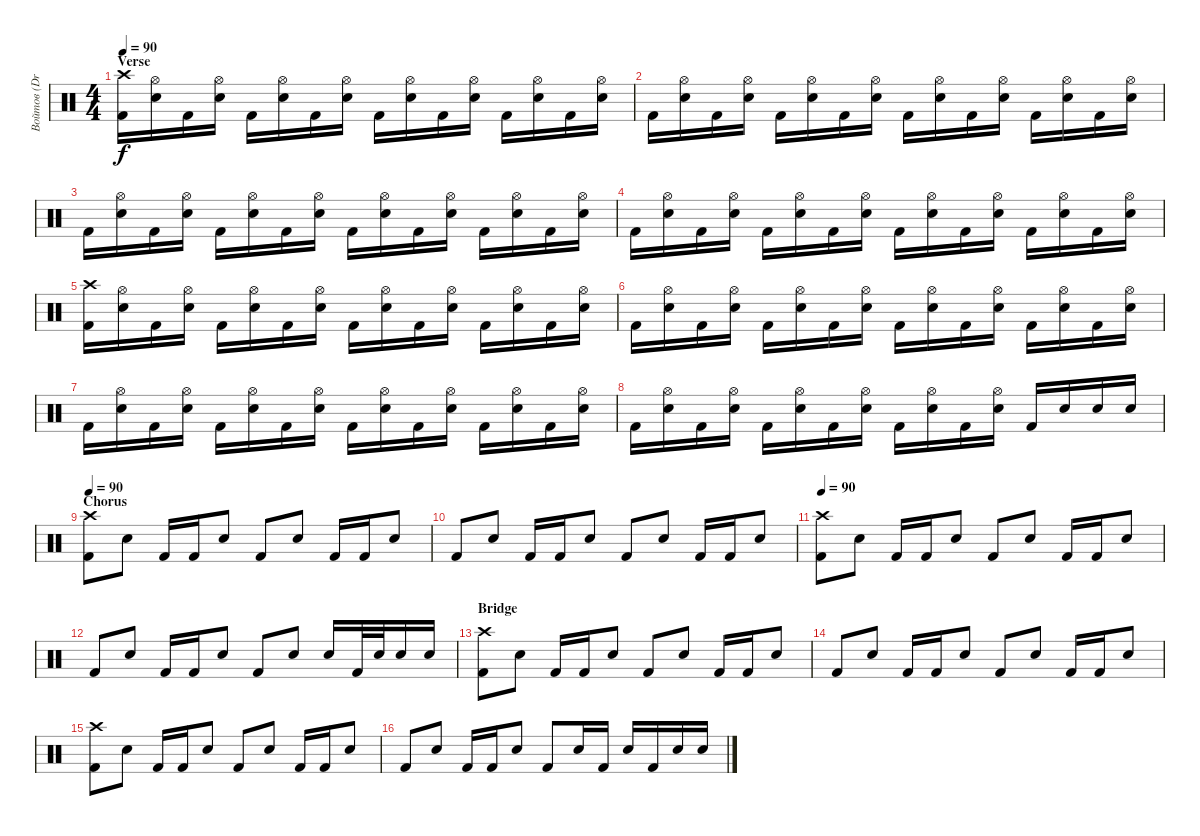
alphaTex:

\track ("Войтов (Drums)" "Войтов (Dr") {instrument percussion}
\staff {score}
\articulation defaults
\ts (4 4)
\section ("" "Verse")
\tempo 90
\clef neutral
\ks c
("Kick (hit) 2" "Crash high (hit)").16{dy f} ("Electric Snare (hit)" "Hi-Hat (open)").16 "Kick (hit) 2".16 ("Electric Snare (hit)" "Hi-Hat (open)").16 "Kick (hit) 2".16 ("Electric Snare (hit)" "Hi-Hat (open)").16 "Kick (hit) 2".16 ("Electric Snare (hit)" "Hi-Hat (open)").16 "Kick (hit) 2".16 ("Electric Snare (hit)" "Hi-Hat (open)").16 "Kick (hit) 2".16 ("Electric Snare (hit)" "Hi-Hat (open)").16 "Kick (hit) 2".16 ("Electric Snare (hit)" "Hi-Hat (open)").16 "Kick (hit) 2".16 ("Electric Snare (hit)" "Hi-Hat (open)").16 |
"Kick (hit) 2".16 ("Electric Snare (hit)" "Hi-Hat (open)").16 "Kick (hit) 2".16 ("Electric Snare (hit)" "Hi-Hat (open)").16 "Kick (hit) 2".16 ("Electric Snare (hit)" "Hi-Hat (open)").16 "Kick (hit) 2".16 ("Electric Snare (hit)" "Hi-Hat (open)").16 "Kick (hit) 2".16 ("Electric Snare (hit)" "Hi-Hat (open)").16 "Kick (hit) 2".16 ("Electric Snare (hit)" "Hi-Hat (open)").16 "Kick (hit) 2".16 ("Electric Snare (hit)" "Hi-Hat (open)").16 "Kick (hit) 2".16 ("Electric Snare (hit)" "Hi-Hat (open)").16 |
"Kick (hit) 2".16 ("Electric Snare (hit)" "Hi-Hat (open)").16 "Kick (hit) 2".16 ("Electric Snare (hit)" "Hi-Hat (open)").16 "Kick (hit) 2".16 ("Electric Snare (hit)" "Hi-Hat (open)").16 "Kick (hit) 2".16 ("Electric Snare (hit)" "Hi-Hat (open)").16 "Kick (hit) 2".16 ("Electric Snare (hit)" "Hi-Hat (open)").16 "Kick (hit) 2".16 ("Electric Snare (hit)" "Hi-Hat (open)").16 "Kick (hit) 2".16 ("Electric Snare (hit)" "Hi-Hat (open)").16 "Kick (hit) 2".16 ("Electric Snare (hit)" "Hi-Hat (open)").16 |
"Kick (hit) 2".16 ("Electric Snare (hit)" "Hi-Hat (open)").16 "Kick (hit) 2".16 ("Electric Snare (hit)" "Hi-Hat (open)").16 "Kick (hit) 2".16 ("Electric Snare (hit)" "Hi-Hat (open)").16 "Kick (hit) 2".16 ("Electric Snare (hit)" "Hi-Hat (open)").16 "Kick (hit) 2".16 ("Electric Snare (hit)" "Hi-Hat (open)").16 "Kick (hit) 2".16 ("Electric Snare (hit)" "Hi-Hat (open)").16 "Kick (hit) 2".16 ("Electric Snare (hit)" "Hi-Hat (open)").16 "Kick (hit) 2".16 ("Electric Snare (hit)" "Hi-Hat (open)").16 |
("Kick (hit) 2" "Crash high (hit)").16 ("Electric Snare (hit)" "Hi-Hat (open)").16 "Kick (hit) 2".16 ("Electric Snare (hit)" "Hi-Hat (open)").16 "Kick (hit) 2".16 ("Electric Snare (hit)" "Hi-Hat (open)").16 "Kick (hit) 2".16 ("Electric Snare (hit)" "Hi-Hat (open)").16 "Kick (hit) 2".16 ("Electric Snare (hit)" "Hi-Hat (open)").16 "Kick (hit) 2".16 ("Electric Snare (hit)" "Hi-Hat (open)").16 "Kick (hit) 2".16 ("Electric Snare (hit)" "Hi-Hat (open)").16 "Kick (hit) 2".16 ("Electric Snare (hit)" "Hi-Hat (open)").16 |
"Kick (hit) 2".16 ("Electric Snare (hit)" "Hi-Hat (open)").16 "Kick (hit) 2".16 ("Electric Snare (hit)" "Hi-Hat (open)").16 "Kick (hit) 2".16 ("Electric Snare (hit)" "Hi-Hat (open)").16 "Kick (hit) 2".16 ("Electric Snare (hit)" "Hi-Hat (open)").16 "Kick (hit) 2".16 ("Electric Snare (hit)" "Hi-Hat (open)").16 "Kick (hit) 2".16 ("Electric Snare (hit)" "Hi-Hat (open)").16 "Kick (hit) 2".16 ("Electric Snare (hit)" "Hi-Hat (open)").16 "Kick (hit) 2".16 ("Electric Snare (hit)" "Hi-Hat (open)").16 |
"Kick (hit) 2".16 ("Electric Snare (hit)" "Hi-Hat (open)").16 "Kick (hit) 2".16 ("Electric Snare (hit)" "Hi-Hat (open)").16 "Kick (hit) 2".16 ("Electric Snare (hit)" "Hi-Hat (open)").16 "Kick (hit) 2".16 ("Electric Snare (hit)" "Hi-Hat (open)").16 "Kick (hit) 2".16 ("Electric Snare (hit)" "Hi-Hat (open)").16 "Kick (hit) 2".16 ("Electric Snare (hit)" "Hi-Hat (open)").16 "Kick (hit) 2".16 ("Electric Snare (hit)" "Hi-Hat (open)").16 "Kick (hit) 2".16 ("Electric Snare (hit)" "Hi-Hat (open)").16 |
"Kick (hit) 2".16 ("Electric Snare (hit)" "Hi-Hat (open)").16 "Kick (hit) 2".16 ("Electric Snare (hit)" "Hi-Hat (open)").16 "Kick (hit) 2".16 ("Electric Snare (hit)" "Hi-Hat (open)").16 "Kick (hit) 2".16 ("Electric Snare (hit)" "Hi-Hat (open)").16 "Kick (hit) 2".16 ("Electric Snare (hit)" "Hi-Hat (open)").16 "Kick (hit) 2".16 ("Electric Snare (hit)" "Hi-Hat (open)").16 "Kick (hit) 2".16 "Electric Snare (hit)".16 "Electric Snare (hit)".16 "Electric Snare (hit)".16 |
\section ("" "Chorus")
\tempo 90
("Kick (hit) 2" "Crash high (hit)").8 "Electric Snare (hit)".8 "Kick (hit) 2".16 "Kick (hit) 2".16 "Electric Snare (hit)".8 "Kick (hit) 2".8 "Electric Snare (hit)".8 "Kick (hit) 2".16 "Kick (hit) 2".16 "Electric Snare (hit)".8 |
"Kick (hit) 2".8 "Electric Snare (hit)".8 "Kick (hit) 2".16 "Kick (hit) 2".16 "Electric Snare (hit)".8 "Kick (hit) 2".8 "Electric Snare (hit)".8 "Kick (hit) 2".16 "Kick (hit) 2".16 "Electric Snare (hit)".8 |
\tempo 90
("Kick (hit) 2" "Crash high (hit)").8 "Electric Snare (hit)".8 "Kick (hit) 2".16 "Kick (hit) 2".16 "Electric Snare (hit)".8 "Kick (hit) 2".8 "Electric Snare (hit)".8 "Kick (hit) 2".16 "Kick (hit) 2".16 "Electric Snare (hit)".8 |
"Kick (hit) 2".8 "Electric Snare (hit)".8 "Kick (hit) 2".16 "Kick (hit) 2".16 "Electric Snare (hit)".8 "Kick (hit) 2".8 "Electric Snare (hit)".8 "Electric Snare (hit)".16 "Kick (hit) 2".32 "Electric Snare (hit)".32 "Electric Snare (hit)".16 "Electric Snare (hit)".16 |
\section ("" "Bridge")
("Kick (hit) 2" "Crash high (hit)").8 "Electric Snare (hit)".8 "Kick (hit) 2".16 "Kick (hit) 2".16 "Electric Snare (hit)".8 "Kick (hit) 2".8 "Electric Snare (hit)".8 "Kick (hit) 2".16 "Kick (hit) 2".16 "Electric Snare (hit)".8 |
"Kick (hit) 2".8 "Electric Snare (hit)".8 "Kick (hit) 2".16 "Kick (hit) 2".16 "Electric Snare (hit)".8 "Kick (hit) 2".8 "Electric Snare (hit)".8 "Kick (hit) 2".16 "Kick (hit) 2".16 "Electric Snare (hit)".8 |
("Kick (hit) 2" "Crash high (hit)").8 "Electric Snare (hit)".8 "Kick (hit) 2".16 "Kick (hit) 2".16 "Electric Snare (hit)".8 "Kick (hit) 2".8 "Electric Snare (hit)".8 "Kick (hit) 2".16 "Kick (hit) 2".16 "Electric Snare (hit)".8 |
"Kick (hit) 2".8 "Electric Snare (hit)".8 "Kick (hit) 2".16 "Kick (hit) 2".16 "Electric Snare (hit)".8 "Kick (hit) 2".8 "Electric Snare (hit)".16 "Kick (hit) 2".16 "Electric Snare (hit)".16 "Kick (hit) 2".16 "Electric Snare (hit)".16 "Electric Snare (hit)".16
